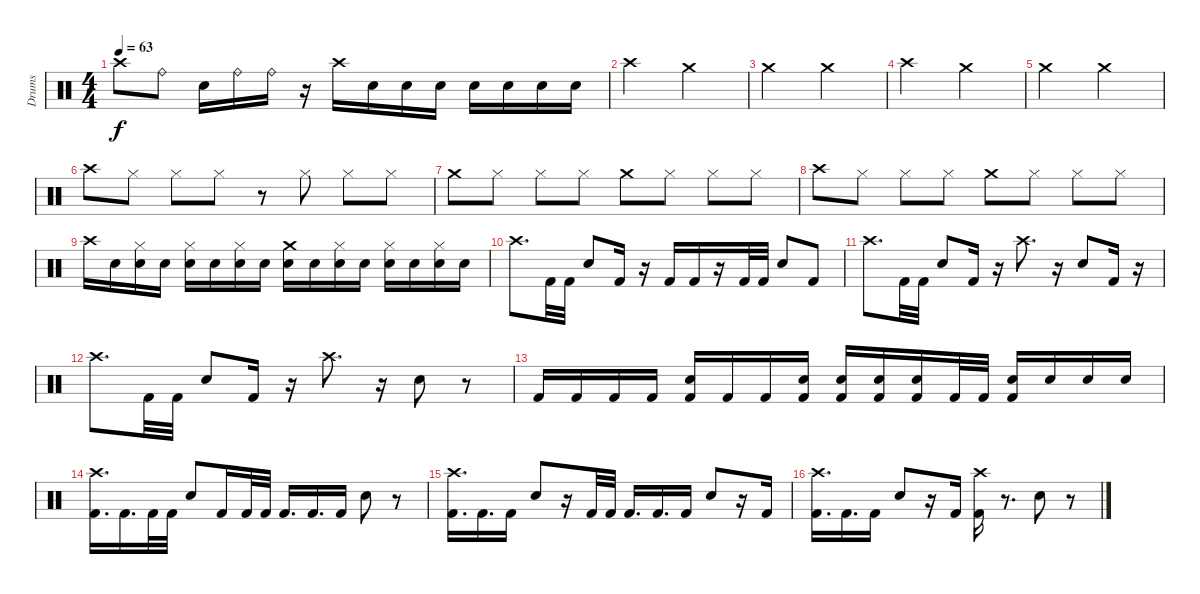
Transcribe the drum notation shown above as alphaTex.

\track ("Drums" "Drums") {instrument percussion}
\staff {score}
\articulation defaults
\ts (4 4)
\tempo 63
\clef neutral
\ks c "Crash high (hit)".8{dy f} "Ride (bell)".8 "Electric Snare (hit)".16 "Ride (bell)".16 "Ride (bell)".16
r.16 "Crash high (hit)".16 "Electric Snare (hit)".16 "Electric Snare (hit)".16 "Electric Snare (hit)".16 "Electric Snare (hit)".16 "Electric Snare (hit)".16 "Electric Snare (hit)".16 "Electric Snare (hit)".16 |
"Crash high (hit)".2 "Crash medium (hit)".2 |
"Crash medium (hit)".2 "Crash medium (hit)".2 |
"Crash high (hit)".2 "Crash medium (hit)".2 |
"Crash medium (hit)".2 "Crash medium (hit)".2 |
"Crash high (hit)".8 "Hi-Hat (closed)".8 "Hi-Hat (closed)".8 "Hi-Hat (closed)".8 r.8 "Hi-Hat (closed)".8 "Hi-Hat (closed)".8 "Hi-Hat (closed)".8 |
"Crash medium (hit)".8 "Hi-Hat (closed)".8 "Hi-Hat (closed)".8 "Hi-Hat (closed)".8 "Crash medium (hit)".8 "Hi-Hat (closed)".8 "Hi-Hat (closed)".8 "Hi-Hat (closed)".8 |
"Crash high (hit)".8 "Hi-Hat (closed)".8 "Hi-Hat (closed)".8 "Hi-Hat (closed)".8 "Crash medium (hit)".8 "Hi-Hat (closed)".8 "Hi-Hat (closed)".8 "Hi-Hat (closed)".8 |
"Crash high (hit)".16 "Electric Snare (hit)".16 ("Electric Snare (hit)" "Hi-Hat (closed)").16 "Electric Snare (hit)".16 ("Electric Snare (hit)" "Hi-Hat (closed)").16 "Electric Snare (hit)".16 ("Electric Snare (hit)" "Hi-Hat (closed)").16 "Electric Snare (hit)".16 ("Electric Snare (hit)" "Crash medium (hit)").16 "Electric Snare (hit)".16 ("Electric Snare (hit)" "Hi-Hat (closed)").16 "Snare (hit) 2".16 ("Snare (hit) 2" "Hi-Hat (closed)").16 "Snare (hit) 2".16 ("Snare (hit) 2" "Hi-Hat (closed)").16 "Snare (hit) 2".16 |
"Crash high (hit)".8{d} "Kick (hit) 2".32 "Kick (hit) 2".32 "Snare (hit) 2".8 "Kick (hit) 2".16 r.16 "Kick (hit) 2".16 "Kick (hit) 2".16 r.16 "Kick (hit) 2".32 "Kick (hit) 2".32 "Snare (hit) 2".8 "Kick (hit) 2".8 |
"Crash high (hit)".8{d} "Kick (hit) 2".32 "Kick (hit) 2".32 "Snare (hit) 2".8 "Kick (hit) 2".16 r.16 "Crash high (hit)".8{d} r.16 "Snare (hit) 2".8 "Kick (hit) 2".16 r.16 |
"Crash high (hit)".8{d} "Kick (hit) 2".32 "Kick (hit) 2".32 "Snare (hit) 2".8 "Kick (hit) 2".16 r.16 "Crash high (hit)".8{d} r.16 "Snare (hit) 2".8 r.8 |
"Kick (hit) 2".16 "Kick (hit) 2".16 "Kick (hit) 2".16 "Kick (hit) 2".16 ("Kick (hit) 2" "Electric Snare (hit)").16 "Kick (hit) 2".16 "Kick (hit) 2".16 ("Kick (hit) 2" "Electric Snare (hit)").16 ("Kick (hit) 2" "Electric Snare (hit)").16 ("Kick (hit) 2" "Electric Snare (hit)").16 ("Kick (hit) 2" "Electric Snare (hit)").16 "Kick (hit) 2".32 "Kick (hit) 2".32 ("Kick (hit) 2" "Electric Snare (hit)").16 "Snare (hit) 2".16 "Snare (hit) 2".16 "Snare (hit) 2".16 |
("Kick (hit) 2" "Crash high (hit)").16{d} "Kick (hit) 2".16{d} "Kick (hit) 2".32 "Kick (hit) 2".32 "Electric Snare (hit)".8 "Kick (hit) 2".16 "Kick (hit) 2".32 "Kick (hit) 2".32 "Kick (hit) 2".16{d} "Kick (hit) 2".16{d} "Kick (hit) 2".16 "Electric Snare (hit)".8 r.8 |
("Kick (hit) 2" "Crash high (hit)").16{d} "Kick (hit) 2".16{d} "Kick (hit) 2".16 "Electric Snare (hit)".8 r.16 "Kick (hit) 2".32 "Kick (hit) 2".32 "Kick (hit) 2".16{d} "Kick (hit) 2".16{d} "Kick (hit) 2".16 "Electric Snare (hit)".8 r.16 "Kick (hit) 2".16 |
("Kick (hit) 2" "Crash high (hit)").16{d} "Kick (hit) 2".16{d} "Kick (hit) 2".16 "Electric Snare (hit)".8 r.16 "Kick (hit) 2".16 ("Kick (hit) 2" "Crash high (hit)").16 r.8{d} "Electric Snare (hit)".8 r.8
